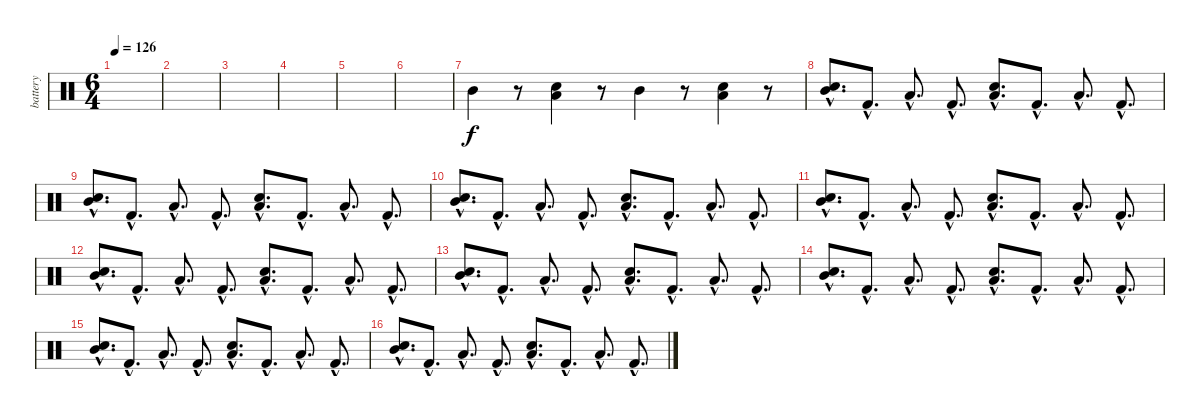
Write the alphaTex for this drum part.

\track ("battery" "battery") {instrument percussion}
\staff {score}
\articulation defaults
\ts (6 4)
\tempo 126
\clef neutral
\ks c
|
|
|
|
|
|
"Mid Tom (hit)".4 r.8 ("Snare (hit) 2" "Low Tom (hit)").4 r.8 "Mid Tom (hit)".4 r.8 ("Snare (hit) 2" "Low Tom (hit)").4 r.8 |
("Snare (hit) 2"{hac} "Mid Tom (hit)"{hac}).8{d} "Kick (hit) 2"{hac}.8{d} "Low Tom (hit)"{hac}.8{d} "Kick (hit) 2"{hac}.8{d} ("Snare (hit) 2"{hac} "Low Tom (hit)"{hac}).8{d} "Kick (hit) 2"{hac}.8{d} "Low Tom (hit)"{hac}.8{d} "Kick (hit) 2"{hac}.8{d} |
("Snare (hit) 2"{hac} "Mid Tom (hit)"{hac}).8{d} "Kick (hit) 2"{hac}.8{d} "Low Tom (hit)"{hac}.8{d} "Kick (hit) 2"{hac}.8{d} ("Snare (hit) 2"{hac} "Low Tom (hit)"{hac}).8{d} "Kick (hit) 2"{hac}.8{d} "Low Tom (hit)"{hac}.8{d} "Kick (hit) 2"{hac}.8{d} |
("Snare (hit) 2"{hac} "Mid Tom (hit)"{hac}).8{d} "Kick (hit) 2"{hac}.8{d} "Low Tom (hit)"{hac}.8{d} "Kick (hit) 2"{hac}.8{d} ("Snare (hit) 2"{hac} "Low Tom (hit)"{hac}).8{d} "Kick (hit) 2"{hac}.8{d} "Low Tom (hit)"{hac}.8{d} "Kick (hit) 2"{hac}.8{d} |
("Snare (hit) 2"{hac} "Mid Tom (hit)"{hac}).8{d} "Kick (hit) 2"{hac}.8{d} "Low Tom (hit)"{hac}.8{d} "Kick (hit) 2"{hac}.8{d} ("Snare (hit) 2"{hac} "Low Tom (hit)"{hac}).8{d} "Kick (hit) 2"{hac}.8{d} "Low Tom (hit)"{hac}.8{d} "Kick (hit) 2"{hac}.8{d} |
("Snare (hit) 2"{hac} "Mid Tom (hit)"{hac}).8{d} "Kick (hit) 2"{hac}.8{d} "Low Tom (hit)"{hac}.8{d} "Kick (hit) 2"{hac}.8{d} ("Snare (hit) 2"{hac} "Low Tom (hit)"{hac}).8{d} "Kick (hit) 2"{hac}.8{d} "Low Tom (hit)"{hac}.8{d} "Kick (hit) 2"{hac}.8{d} |
("Snare (hit) 2"{hac} "Mid Tom (hit)"{hac}).8{d} "Kick (hit) 2"{hac}.8{d} "Low Tom (hit)"{hac}.8{d} "Kick (hit) 2"{hac}.8{d} ("Snare (hit) 2"{hac} "Low Tom (hit)"{hac}).8{d} "Kick (hit) 2"{hac}.8{d} "Low Tom (hit)"{hac}.8{d} "Kick (hit) 2"{hac}.8{d} |
("Snare (hit) 2"{hac} "Mid Tom (hit)"{hac}).8{d} "Kick (hit) 2"{hac}.8{d} "Low Tom (hit)"{hac}.8{d} "Kick (hit) 2"{hac}.8{d} ("Snare (hit) 2"{hac} "Low Tom (hit)"{hac}).8{d} "Kick (hit) 2"{hac}.8{d} "Low Tom (hit)"{hac}.8{d} "Kick (hit) 2"{hac}.8{d} |
("Snare (hit) 2"{hac} "Mid Tom (hit)"{hac}).8{d} "Kick (hit) 2"{hac}.8{d} "Low Tom (hit)"{hac}.8{d} "Kick (hit) 2"{hac}.8{d} ("Snare (hit) 2"{hac} "Low Tom (hit)"{hac}).8{d} "Kick (hit) 2"{hac}.8{d} "Low Tom (hit)"{hac}.8{d} "Kick (hit) 2"{hac}.8{d} |
("Snare (hit) 2"{hac} "Mid Tom (hit)"{hac}).8{d} "Kick (hit) 2"{hac}.8{d} "Low Tom (hit)"{hac}.8{d} "Kick (hit) 2"{hac}.8{d} ("Snare (hit) 2"{hac} "Low Tom (hit)"{hac}).8{d} "Kick (hit) 2"{hac}.8{d} "Low Tom (hit)"{hac}.8{d} "Kick (hit) 2"{hac}.8{d}
